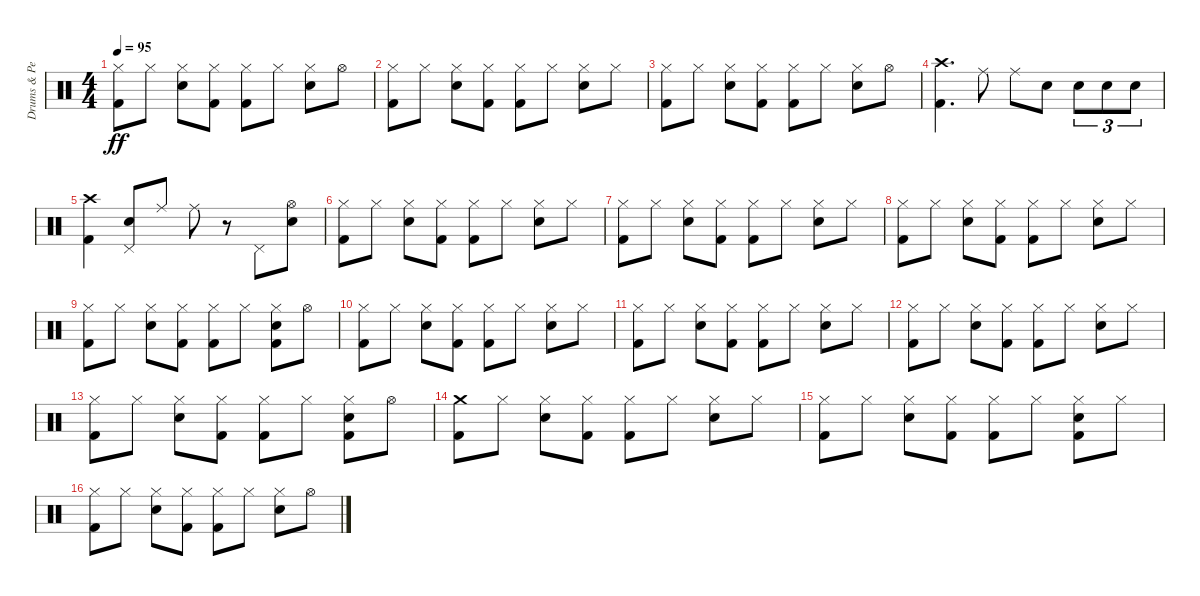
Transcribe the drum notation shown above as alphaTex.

\track ("Drums & Percussion" "Drums & Pe") {instrument percussion}
\staff {score}
\articulation defaults
\ts (4 4)
\tempo 95
\clef neutral
\ks c
("Kick (hit) 2" "Hi-Hat (closed)").8{dy ff} "Hi-Hat (closed)".8 ("Snare (hit) 2" "Hi-Hat (closed)").8 ("Kick (hit) 2" "Hi-Hat (closed)").8 ("Kick (hit) 2" "Hi-Hat (closed)").8 "Hi-Hat (closed)".8 ("Snare (hit) 2" "Hi-Hat (closed)").8 "Hi-Hat (open)".8 |
("Kick (hit) 2" "Hi-Hat (closed)").8 "Hi-Hat (closed)".8 ("Snare (hit) 2" "Hi-Hat (closed)").8 ("Kick (hit) 2" "Hi-Hat (closed)").8 ("Kick (hit) 2" "Hi-Hat (closed)").8 "Hi-Hat (closed)".8 ("Snare (hit) 2" "Hi-Hat (closed)").8 "Hi-Hat (closed)".8 |
("Kick (hit) 2" "Hi-Hat (closed)").8 "Hi-Hat (closed)".8 ("Snare (hit) 2" "Hi-Hat (closed)").8 ("Kick (hit) 2" "Hi-Hat (closed)").8 ("Kick (hit) 2" "Hi-Hat (closed)").8 "Hi-Hat (closed)".8 ("Snare (hit) 2" "Hi-Hat (closed)").8 "Hi-Hat (open)".8 |
("Kick (hit) 2" "Crash high (hit)").4{d} "Ride (middle)".8 "Ride (middle)".8 "Electric Snare (hit)".8 "Electric Snare (hit)".8{tu (3 2)} "Electric Snare (hit)".8{tu (3 2)} "Electric Snare (hit)".8{tu (3 2)} |
("Kick (hit) 2" "Crash high (hit)").4 ("Electric Snare (hit)" "Pedal Hi-Hat (hit)").8 "Ride (middle)".8 "Ride (middle)".8 r.8 "Pedal Hi-Hat (hit)".8 ("Electric Snare (hit)" "Hi-Hat (open)").8 |
("Kick (hit) 2" "Hi-Hat (closed)").8 "Hi-Hat (closed)".8 ("Snare (hit) 2" "Hi-Hat (closed)").8 ("Kick (hit) 2" "Hi-Hat (closed)").8 ("Kick (hit) 2" "Hi-Hat (closed)").8 "Hi-Hat (closed)".8 ("Snare (hit) 2" "Hi-Hat (closed)").8 "Hi-Hat (closed)".8 |
("Kick (hit) 2" "Hi-Hat (closed)").8 "Hi-Hat (closed)".8 ("Snare (hit) 2" "Hi-Hat (closed)").8 ("Kick (hit) 2" "Hi-Hat (closed)").8 ("Kick (hit) 2" "Hi-Hat (closed)").8 "Hi-Hat (closed)".8 ("Snare (hit) 2" "Hi-Hat (closed)").8 "Hi-Hat (closed)".8 |
("Kick (hit) 2" "Hi-Hat (closed)").8 "Hi-Hat (closed)".8 ("Snare (hit) 2" "Hi-Hat (closed)").8 ("Kick (hit) 2" "Hi-Hat (closed)").8 ("Kick (hit) 2" "Hi-Hat (closed)").8 "Hi-Hat (closed)".8 ("Snare (hit) 2" "Hi-Hat (closed)").8 "Hi-Hat (closed)".8 |
("Kick (hit) 2" "Hi-Hat (closed)").8 "Hi-Hat (closed)".8 ("Snare (hit) 2" "Hi-Hat (closed)").8 ("Kick (hit) 2" "Hi-Hat (closed)").8 ("Kick (hit) 2" "Hi-Hat (closed)").8 "Hi-Hat (closed)".8 ("Kick (hit) 2" "Snare (hit) 2" "Hi-Hat (closed)").8 "Hi-Hat (open)".8 |
("Kick (hit) 2" "Hi-Hat (closed)").8 "Hi-Hat (closed)".8 ("Snare (hit) 2" "Hi-Hat (closed)").8 ("Kick (hit) 2" "Hi-Hat (closed)").8 ("Kick (hit) 2" "Hi-Hat (closed)").8 "Hi-Hat (closed)".8 ("Snare (hit) 2" "Hi-Hat (closed)").8 "Hi-Hat (closed)".8 |
("Kick (hit) 2" "Hi-Hat (closed)").8 "Hi-Hat (closed)".8 ("Snare (hit) 2" "Hi-Hat (closed)").8 ("Kick (hit) 2" "Hi-Hat (closed)").8 ("Kick (hit) 2" "Hi-Hat (closed)").8 "Hi-Hat (closed)".8 ("Snare (hit) 2" "Hi-Hat (closed)").8 "Hi-Hat (closed)".8 |
("Kick (hit) 2" "Hi-Hat (closed)").8 "Hi-Hat (closed)".8 ("Snare (hit) 2" "Hi-Hat (closed)").8 ("Kick (hit) 2" "Hi-Hat (closed)").8 ("Kick (hit) 2" "Hi-Hat (closed)").8 "Hi-Hat (closed)".8 ("Snare (hit) 2" "Hi-Hat (closed)").8 "Hi-Hat (closed)".8 |
("Kick (hit) 2" "Hi-Hat (closed)").8 "Hi-Hat (closed)".8 ("Snare (hit) 2" "Hi-Hat (closed)").8 ("Kick (hit) 2" "Hi-Hat (closed)").8 ("Kick (hit) 2" "Hi-Hat (closed)").8 "Hi-Hat (closed)".8 ("Kick (hit) 2" "Snare (hit) 2" "Hi-Hat (closed)").8 "Hi-Hat (open)".8 |
("Kick (hit) 2" "Crash medium (hit)").8 "Hi-Hat (closed)".8 ("Snare (hit) 2" "Hi-Hat (closed)").8 ("Kick (hit) 2" "Hi-Hat (closed)").8 ("Kick (hit) 2" "Hi-Hat (closed)").8 "Hi-Hat (closed)".8 ("Snare (hit) 2" "Hi-Hat (closed)").8 "Hi-Hat (closed)".8 |
("Kick (hit) 2" "Hi-Hat (closed)").8 "Hi-Hat (closed)".8 ("Snare (hit) 2" "Hi-Hat (closed)").8 ("Kick (hit) 2" "Hi-Hat (closed)").8 ("Kick (hit) 2" "Hi-Hat (closed)").8 "Hi-Hat (closed)".8 ("Kick (hit) 2" "Snare (hit) 2" "Hi-Hat (closed)").8 "Hi-Hat (closed)".8 |
("Kick (hit) 2" "Hi-Hat (closed)").8 "Hi-Hat (closed)".8 ("Snare (hit) 2" "Hi-Hat (closed)").8 ("Kick (hit) 2" "Hi-Hat (closed)").8 ("Kick (hit) 2" "Hi-Hat (closed)").8 "Hi-Hat (closed)".8 ("Snare (hit) 2" "Hi-Hat (closed)").8 "Hi-Hat (open)".8
